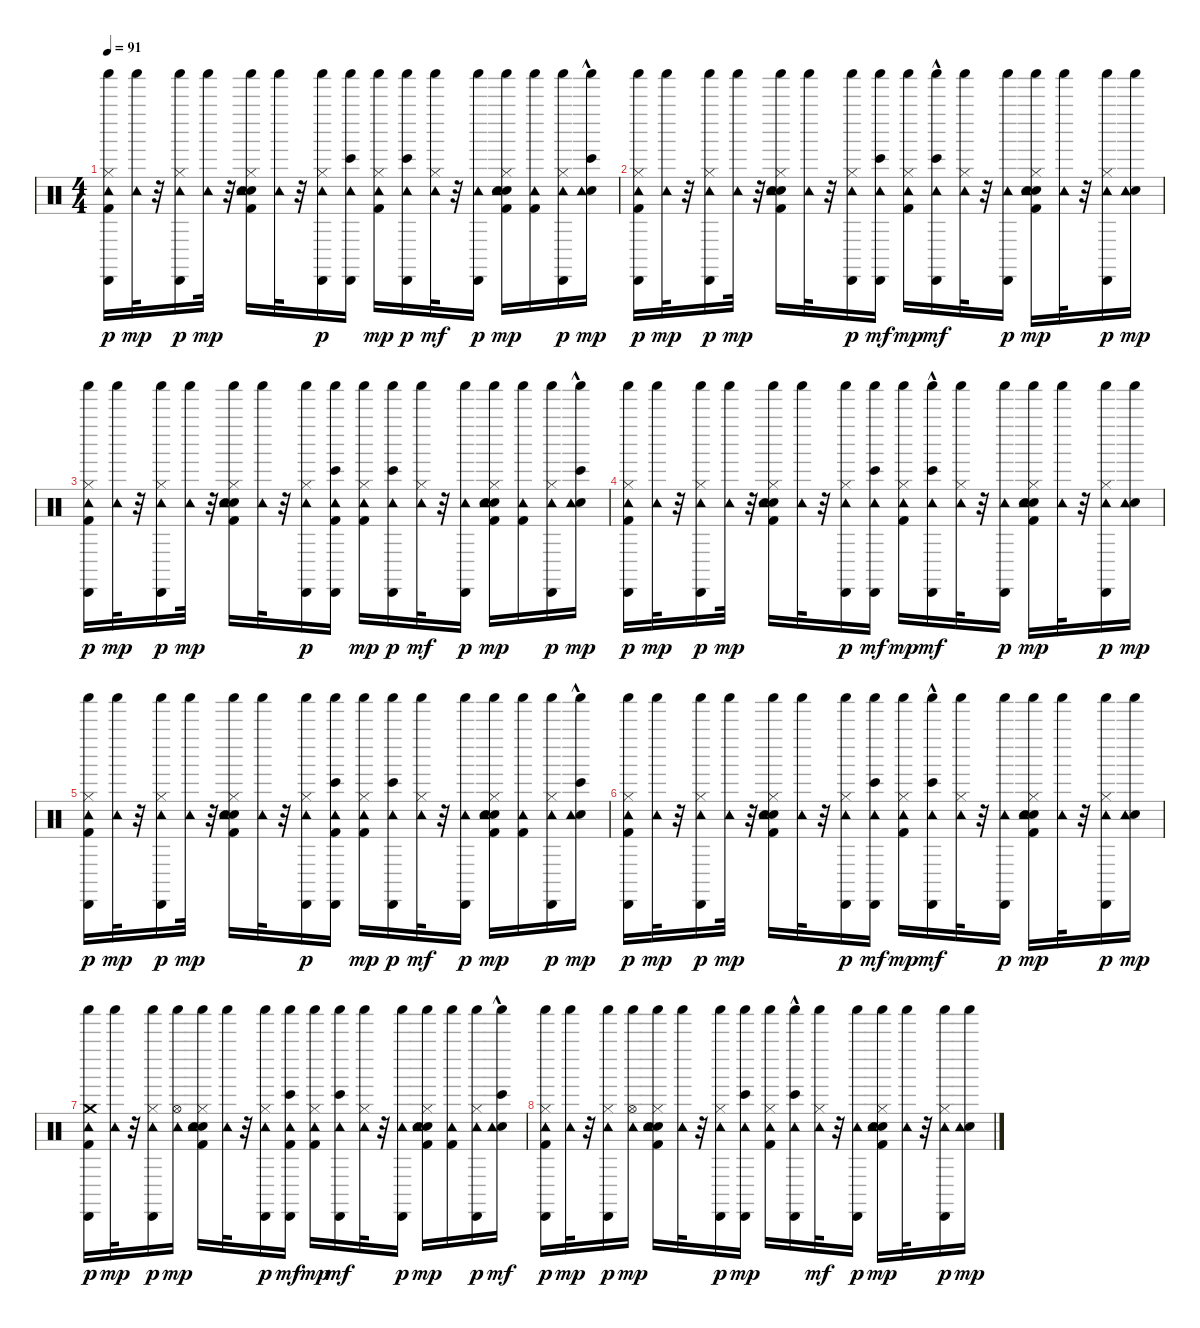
\track "" {instrument percussion}
\staff {score}
\articulation defaults
\ts (4 4)
\tempo 91
\clef neutral
\ks c
("Kick (hit) 2" "Hi-Hat (closed)" "Tambourine (hit)" "Shaker (hit)" "Cabasa (hit)").16{dy p} ("Tambourine (hit)" "Shaker (hit)").32{dy mp} r.32 ("Hi-Hat (closed)" "Tambourine (hit)" "Shaker (hit)" "Cabasa (hit)").16{dy p} ("Tambourine (hit)" "Shaker (hit)").32{dy mp} r.32 ("Kick (hit) 2" "Electric Snare (hit)" "Hi-Hat (closed)" "Hand Clap (hit)" "Tambourine (hit)" "Shaker (hit)").16 ("Tambourine (hit)" "Shaker (hit)").32 r.32 ("Hi-Hat (closed)" "Tambourine (hit)" "Shaker (hit)" "Cabasa (hit)").16{dy p} ("Tambourine (hit)" "Shaker (hit)" "Cabasa (hit)" "Bongo High (hit)").16 ("Kick (hit) 2" "Hi-Hat (closed)" "Tambourine (hit)" "Shaker (hit)").16{dy mp} ("Tambourine (hit)" "Shaker (hit)" "Cabasa (hit)" "Bongo High (hit)").16{dy p} ("Hi-Hat (closed)" "Tambourine (hit)" "Shaker (hit)").32{dy mf} r.32 ("Tambourine (hit)" "Shaker (hit)" "Cabasa (hit)").16{dy p} ("Kick (hit) 2" "Electric Snare (hit)" "Hi-Hat (closed)" "Hand Clap (hit)" "Tambourine (hit)" "Shaker (hit)").16{dy mp} ("Kick (hit) 2" "Tambourine (hit)" "Shaker (hit)").16 ("Hi-Hat (closed)" "Tambourine (hit)" "Shaker (hit)" "Cabasa (hit)").16{dy p} ("Electric Snare (hit)" "Tambourine (hit)" "Shaker (hit)" "Bongo High (hit)"{hac}).16{dy mp} |
("Kick (hit) 2" "Hi-Hat (closed)" "Tambourine (hit)" "Shaker (hit)" "Cabasa (hit)").16{dy p} ("Tambourine (hit)" "Shaker (hit)").32{dy mp} r.32 ("Hi-Hat (closed)" "Tambourine (hit)" "Shaker (hit)" "Cabasa (hit)").16{dy p} ("Tambourine (hit)" "Shaker (hit)").32{dy mp} r.32 ("Kick (hit) 2" "Electric Snare (hit)" "Hi-Hat (closed)" "Hand Clap (hit)" "Tambourine (hit)" "Shaker (hit)").16 ("Tambourine (hit)" "Shaker (hit)").32 r.32 ("Hi-Hat (closed)" "Tambourine (hit)" "Shaker (hit)" "Cabasa (hit)").16{dy p} ("Tambourine (hit)" "Shaker (hit)" "Cabasa (hit)" "Bongo High (hit)").16{dy mf} ("Kick (hit) 2" "Hi-Hat (closed)" "Tambourine (hit)" "Shaker (hit)").16{dy mp} ("Tambourine (hit)" "Shaker (hit)" "Cabasa (hit)" "Bongo High (hit)"{hac}).16{dy mf} ("Hi-Hat (closed)" "Tambourine (hit)" "Shaker (hit)").32 r.32 ("Tambourine (hit)" "Shaker (hit)" "Cabasa (hit)").16{dy p} ("Kick (hit) 2" "Electric Snare (hit)" "Hi-Hat (closed)" "Hand Clap (hit)" "Tambourine (hit)" "Shaker (hit)").16{dy mp} ("Tambourine (hit)" "Shaker (hit)").32 r.32 ("Hi-Hat (closed)" "Tambourine (hit)" "Shaker (hit)" "Cabasa (hit)").16{dy p} ("Electric Snare (hit)" "Tambourine (hit)" "Shaker (hit)").16{dy mp} |
("Kick (hit) 2" "Hi-Hat (closed)" "Tambourine (hit)" "Shaker (hit)" "Cabasa (hit)").16{dy p} ("Tambourine (hit)" "Shaker (hit)").32{dy mp} r.32 ("Hi-Hat (closed)" "Tambourine (hit)" "Shaker (hit)" "Cabasa (hit)").16{dy p} ("Tambourine (hit)" "Shaker (hit)").32{dy mp} r.32 ("Kick (hit) 2" "Electric Snare (hit)" "Hi-Hat (closed)" "Hand Clap (hit)" "Tambourine (hit)" "Shaker (hit)").16 ("Tambourine (hit)" "Shaker (hit)").32 r.32 ("Hi-Hat (closed)" "Tambourine (hit)" "Shaker (hit)" "Cabasa (hit)").16{dy p} ("Kick (hit) 2" "Tambourine (hit)" "Shaker (hit)" "Cabasa (hit)" "Bongo High (hit)").16 ("Kick (hit) 2" "Hi-Hat (closed)" "Tambourine (hit)" "Shaker (hit)").16{dy mp} ("Tambourine (hit)" "Shaker (hit)" "Cabasa (hit)" "Bongo High (hit)").16{dy p} ("Hi-Hat (closed)" "Tambourine (hit)" "Shaker (hit)").32{dy mf} r.32 ("Tambourine (hit)" "Shaker (hit)" "Cabasa (hit)").16{dy p} ("Kick (hit) 2" "Electric Snare (hit)" "Hi-Hat (closed)" "Hand Clap (hit)" "Tambourine (hit)" "Shaker (hit)").16{dy mp} ("Kick (hit) 2" "Tambourine (hit)" "Shaker (hit)").16 ("Hi-Hat (closed)" "Tambourine (hit)" "Shaker (hit)" "Cabasa (hit)").16{dy p} ("Electric Snare (hit)" "Tambourine (hit)" "Shaker (hit)" "Bongo High (hit)"{hac}).16{dy mp} |
("Kick (hit) 2" "Hi-Hat (closed)" "Tambourine (hit)" "Shaker (hit)" "Cabasa (hit)").16{dy p} ("Tambourine (hit)" "Shaker (hit)").32{dy mp} r.32 ("Hi-Hat (closed)" "Tambourine (hit)" "Shaker (hit)" "Cabasa (hit)").16{dy p} ("Tambourine (hit)" "Shaker (hit)").32{dy mp} r.32 ("Kick (hit) 2" "Electric Snare (hit)" "Hi-Hat (closed)" "Hand Clap (hit)" "Tambourine (hit)" "Shaker (hit)").16 ("Tambourine (hit)" "Shaker (hit)").32 r.32 ("Hi-Hat (closed)" "Tambourine (hit)" "Shaker (hit)" "Cabasa (hit)").16{dy p} ("Tambourine (hit)" "Shaker (hit)" "Cabasa (hit)" "Bongo High (hit)").16{dy mf} ("Kick (hit) 2" "Hi-Hat (closed)" "Tambourine (hit)" "Shaker (hit)").16{dy mp} ("Tambourine (hit)" "Shaker (hit)" "Cabasa (hit)" "Bongo High (hit)"{hac}).16{dy mf} ("Hi-Hat (closed)" "Tambourine (hit)" "Shaker (hit)").32 r.32 ("Tambourine (hit)" "Shaker (hit)" "Cabasa (hit)").16{dy p} ("Kick (hit) 2" "Electric Snare (hit)" "Hi-Hat (closed)" "Hand Clap (hit)" "Tambourine (hit)" "Shaker (hit)").16{dy mp} ("Tambourine (hit)" "Shaker (hit)").32 r.32 ("Hi-Hat (closed)" "Tambourine (hit)" "Shaker (hit)" "Cabasa (hit)").16{dy p} ("Electric Snare (hit)" "Tambourine (hit)" "Shaker (hit)").16{dy mp} |
("Kick (hit) 2" "Hi-Hat (closed)" "Tambourine (hit)" "Shaker (hit)" "Cabasa (hit)").16{dy p} ("Tambourine (hit)" "Shaker (hit)").32{dy mp} r.32 ("Hi-Hat (closed)" "Tambourine (hit)" "Shaker (hit)" "Cabasa (hit)").16{dy p} ("Tambourine (hit)" "Shaker (hit)").32{dy mp} r.32 ("Kick (hit) 2" "Electric Snare (hit)" "Hi-Hat (closed)" "Hand Clap (hit)" "Tambourine (hit)" "Shaker (hit)").16 ("Tambourine (hit)" "Shaker (hit)").32 r.32 ("Hi-Hat (closed)" "Tambourine (hit)" "Shaker (hit)" "Cabasa (hit)").16{dy p} ("Kick (hit) 2" "Tambourine (hit)" "Shaker (hit)" "Cabasa (hit)" "Bongo High (hit)").16 ("Kick (hit) 2" "Hi-Hat (closed)" "Tambourine (hit)" "Shaker (hit)").16{dy mp} ("Tambourine (hit)" "Shaker (hit)" "Cabasa (hit)" "Bongo High (hit)").16{dy p} ("Hi-Hat (closed)" "Tambourine (hit)" "Shaker (hit)").32{dy mf} r.32 ("Tambourine (hit)" "Shaker (hit)" "Cabasa (hit)").16{dy p} ("Kick (hit) 2" "Electric Snare (hit)" "Hi-Hat (closed)" "Hand Clap (hit)" "Tambourine (hit)" "Shaker (hit)").16{dy mp} ("Kick (hit) 2" "Tambourine (hit)" "Shaker (hit)").16 ("Hi-Hat (closed)" "Tambourine (hit)" "Shaker (hit)" "Cabasa (hit)").16{dy p} ("Electric Snare (hit)" "Tambourine (hit)" "Shaker (hit)" "Bongo High (hit)"{hac}).16{dy mp} |
("Kick (hit) 2" "Hi-Hat (closed)" "Tambourine (hit)" "Shaker (hit)" "Cabasa (hit)").16{dy p} ("Tambourine (hit)" "Shaker (hit)").32{dy mp} r.32 ("Hi-Hat (closed)" "Tambourine (hit)" "Shaker (hit)" "Cabasa (hit)").16{dy p} ("Tambourine (hit)" "Shaker (hit)").32{dy mp} r.32 ("Kick (hit) 2" "Electric Snare (hit)" "Hi-Hat (closed)" "Hand Clap (hit)" "Tambourine (hit)" "Shaker (hit)").16 ("Tambourine (hit)" "Shaker (hit)").32 r.32 ("Hi-Hat (closed)" "Tambourine (hit)" "Shaker (hit)" "Cabasa (hit)").16{dy p} ("Tambourine (hit)" "Shaker (hit)" "Cabasa (hit)" "Bongo High (hit)").16{dy mf} ("Kick (hit) 2" "Hi-Hat (closed)" "Tambourine (hit)" "Shaker (hit)").16{dy mp} ("Tambourine (hit)" "Shaker (hit)" "Cabasa (hit)" "Bongo High (hit)"{hac}).16{dy mf} ("Hi-Hat (closed)" "Tambourine (hit)" "Shaker (hit)").32 r.32 ("Tambourine (hit)" "Shaker (hit)" "Cabasa (hit)").16{dy p} ("Kick (hit) 2" "Electric Snare (hit)" "Hi-Hat (closed)" "Hand Clap (hit)" "Tambourine (hit)" "Shaker (hit)").16{dy mp} ("Tambourine (hit)" "Shaker (hit)").32 r.32 ("Hi-Hat (closed)" "Tambourine (hit)" "Shaker (hit)" "Cabasa (hit)").16{dy p} ("Electric Snare (hit)" "Tambourine (hit)" "Shaker (hit)").16{dy mp} |
("Crash medium (hit)" "Kick (hit) 2" "Tambourine (hit)" "Shaker (hit)" "Cabasa (hit)").16{dy p} ("Tambourine (hit)" "Shaker (hit)").32{dy mp} r.32 ("Hi-Hat (closed)" "Tambourine (hit)" "Shaker (hit)" "Cabasa (hit)").16{dy p} ("Hi-Hat (open)" "Tambourine (hit)" "Shaker (hit)").16{dy mp} ("Kick (hit) 2" "Electric Snare (hit)" "Hi-Hat (closed)" "Hand Clap (hit)" "Tambourine (hit)" "Shaker (hit)").16 ("Tambourine (hit)" "Shaker (hit)").32 r.32 ("Hi-Hat (closed)" "Tambourine (hit)" "Shaker (hit)" "Cabasa (hit)").16{dy p} ("Kick (hit) 2" "Tambourine (hit)" "Shaker (hit)" "Cabasa (hit)" "Bongo High (hit)").16{dy mf} ("Kick (hit) 2" "Hi-Hat (closed)" "Tambourine (hit)" "Shaker (hit)").16{dy mp} ("Tambourine (hit)" "Shaker (hit)" "Cabasa (hit)" "Bongo High (hit)").16{dy mf} ("Hi-Hat (closed)" "Tambourine (hit)" "Shaker (hit)").32 r.32 ("Tambourine (hit)" "Shaker (hit)" "Cabasa (hit)").16{dy p} ("Kick (hit) 2" "Electric Snare (hit)" "Hi-Hat (closed)" "Hand Clap (hit)" "Tambourine (hit)" "Shaker (hit)").16{dy mp} ("Kick (hit) 2" "Tambourine (hit)" "Shaker (hit)").16 ("Hi-Hat (closed)" "Tambourine (hit)" "Shaker (hit)" "Cabasa (hit)").16{dy p} ("Electric Snare (hit)" "Tambourine (hit)" "Shaker (hit)" "Bongo High (hit)"{hac}).16{dy mf} |
("Kick (hit) 2" "Hi-Hat (closed)" "Tambourine (hit)" "Shaker (hit)" "Cabasa (hit)").16{dy p} ("Tambourine (hit)" "Shaker (hit)").32{dy mp} r.32 ("Hi-Hat (closed)" "Tambourine (hit)" "Shaker (hit)" "Cabasa (hit)").16{dy p} ("Hi-Hat (open)" "Tambourine (hit)" "Shaker (hit)").16{dy mp} ("Kick (hit) 2" "Electric Snare (hit)" "Hi-Hat (closed)" "Hand Clap (hit)" "Tambourine (hit)" "Shaker (hit)").16 ("Tambourine (hit)" "Shaker (hit)").32 r.32 ("Hi-Hat (closed)" "Tambourine (hit)" "Shaker (hit)" "Cabasa (hit)").16{dy p} ("Tambourine (hit)" "Shaker (hit)" "Cabasa (hit)" "Bongo High (hit)").16{dy mp} ("Kick (hit) 2" "Hi-Hat (closed)" "Tambourine (hit)" "Shaker (hit)").16 ("Tambourine (hit)" "Shaker (hit)" "Cabasa (hit)" "Bongo High (hit)"{hac}).16 ("Hi-Hat (closed)" "Tambourine (hit)" "Shaker (hit)").32{dy mf} r.32 ("Tambourine (hit)" "Shaker (hit)" "Cabasa (hit)").16{dy p} ("Kick (hit) 2" "Electric Snare (hit)" "Hi-Hat (closed)" "Hand Clap (hit)" "Tambourine (hit)" "Shaker (hit)").16{dy mp} ("Tambourine (hit)" "Shaker (hit)").32 r.32 ("Hi-Hat (closed)" "Tambourine (hit)" "Shaker (hit)" "Cabasa (hit)").16{dy p} ("Electric Snare (hit)" "Tambourine (hit)" "Shaker (hit)").16{dy mp}
